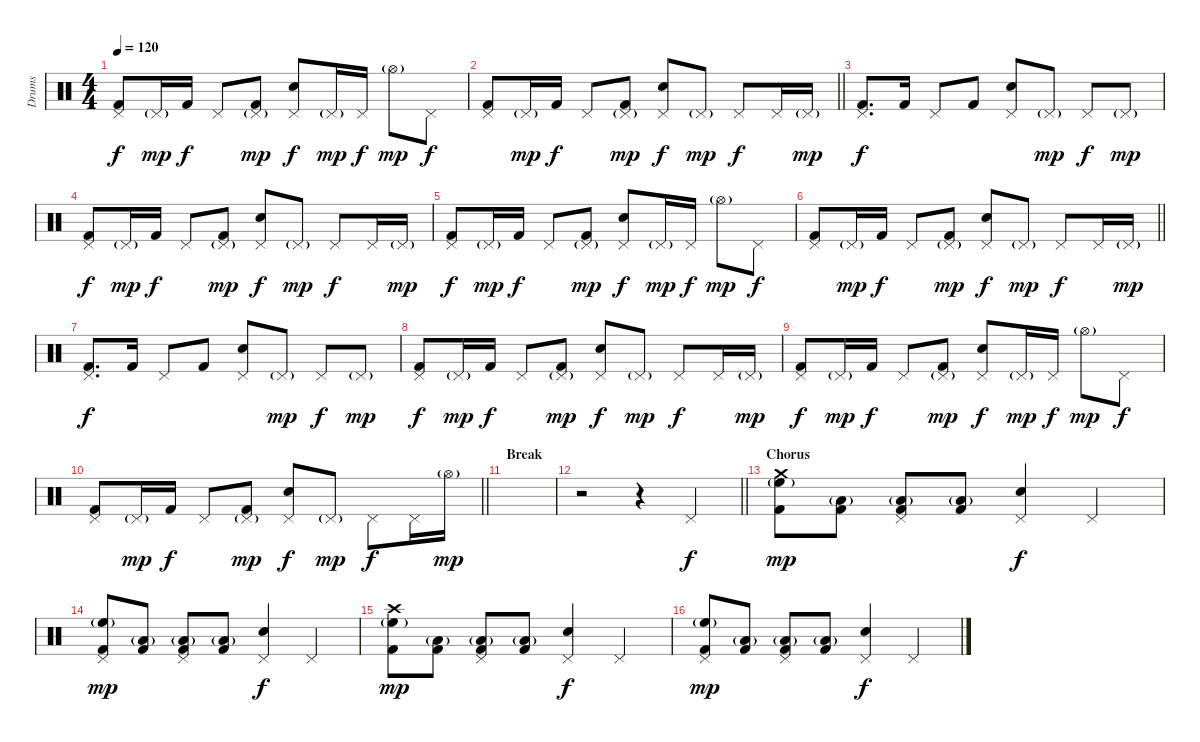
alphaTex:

\track ("Drums" "Drums") {instrument percussion}
\staff {score}
\articulation defaults
\ts (4 4)
\tempo 120
\clef neutral
\ks c
("Pedal Hi-Hat (hit)" "Kick (hit) 2").8{dy f} "Pedal Hi-Hat (hit)"{g}.16{dy mp} "Kick (hit) 2".16{dy f} "Pedal Hi-Hat (hit)".8 ("Pedal Hi-Hat (hit)"{g} "Kick (hit) 2").8{dy mp} ("Pedal Hi-Hat (hit)" "Electric Snare (hit)").8{dy f} "Pedal Hi-Hat (hit)"{g}.16{dy mp} "Pedal Hi-Hat (hit)".16{dy f} "Hi-Hat (open)"{g}.8{dy mp} "Pedal Hi-Hat (hit)".8{dy f} |
\barLineRight lightlight
("Pedal Hi-Hat (hit)" "Kick (hit) 2").8 "Pedal Hi-Hat (hit)"{g}.16{dy mp} "Kick (hit) 2".16{dy f} "Pedal Hi-Hat (hit)".8 ("Pedal Hi-Hat (hit)"{g} "Kick (hit) 2").8{dy mp} ("Pedal Hi-Hat (hit)" "Electric Snare (hit)").8{dy f} "Pedal Hi-Hat (hit)"{g}.8{dy mp} "Pedal Hi-Hat (hit)".8{dy f} "Pedal Hi-Hat (hit)".16 "Pedal Hi-Hat (hit)"{g}.16{dy mp} |
("Pedal Hi-Hat (hit)" "Kick (hit) 2").8{d dy f} "Kick (hit) 2".16 "Pedal Hi-Hat (hit)".8 "Kick (hit) 2".8 ("Pedal Hi-Hat (hit)" "Electric Snare (hit)").8 "Pedal Hi-Hat (hit)"{g}.8{dy mp} "Pedal Hi-Hat (hit)".8{dy f} "Pedal Hi-Hat (hit)"{g}.8{dy mp} |
("Pedal Hi-Hat (hit)" "Kick (hit) 2").8{dy f} "Pedal Hi-Hat (hit)"{g}.16{dy mp} "Kick (hit) 2".16{dy f} "Pedal Hi-Hat (hit)".8 ("Pedal Hi-Hat (hit)"{g} "Kick (hit) 2").8{dy mp} ("Pedal Hi-Hat (hit)" "Electric Snare (hit)").8{dy f} "Pedal Hi-Hat (hit)"{g}.8{dy mp} "Pedal Hi-Hat (hit)".8{dy f} "Pedal Hi-Hat (hit)".16 "Pedal Hi-Hat (hit)"{g}.16{dy mp} |
("Pedal Hi-Hat (hit)" "Kick (hit) 2").8{dy f} "Pedal Hi-Hat (hit)"{g}.16{dy mp} "Kick (hit) 2".16{dy f} "Pedal Hi-Hat (hit)".8 ("Pedal Hi-Hat (hit)"{g} "Kick (hit) 2").8{dy mp} ("Pedal Hi-Hat (hit)" "Electric Snare (hit)").8{dy f} "Pedal Hi-Hat (hit)"{g}.16{dy mp} "Pedal Hi-Hat (hit)".16{dy f} "Hi-Hat (open)"{g}.8{dy mp} "Pedal Hi-Hat (hit)".8{dy f} |
\barLineRight lightlight
("Pedal Hi-Hat (hit)" "Kick (hit) 2").8 "Pedal Hi-Hat (hit)"{g}.16{dy mp} "Kick (hit) 2".16{dy f} "Pedal Hi-Hat (hit)".8 ("Pedal Hi-Hat (hit)"{g} "Kick (hit) 2").8{dy mp} ("Pedal Hi-Hat (hit)" "Electric Snare (hit)").8{dy f} "Pedal Hi-Hat (hit)"{g}.8{dy mp} "Pedal Hi-Hat (hit)".8{dy f} "Pedal Hi-Hat (hit)".16 "Pedal Hi-Hat (hit)"{g}.16{dy mp} |
("Pedal Hi-Hat (hit)" "Kick (hit) 2").8{d dy f} "Kick (hit) 2".16 "Pedal Hi-Hat (hit)".8 "Kick (hit) 2".8 ("Pedal Hi-Hat (hit)" "Electric Snare (hit)").8 "Pedal Hi-Hat (hit)"{g}.8{dy mp} "Pedal Hi-Hat (hit)".8{dy f} "Pedal Hi-Hat (hit)"{g}.8{dy mp} |
("Pedal Hi-Hat (hit)" "Kick (hit) 2").8{dy f} "Pedal Hi-Hat (hit)"{g}.16{dy mp} "Kick (hit) 2".16{dy f} "Pedal Hi-Hat (hit)".8 ("Pedal Hi-Hat (hit)"{g} "Kick (hit) 2").8{dy mp} ("Pedal Hi-Hat (hit)" "Electric Snare (hit)").8{dy f} "Pedal Hi-Hat (hit)"{g}.8{dy mp} "Pedal Hi-Hat (hit)".8{dy f} "Pedal Hi-Hat (hit)".16 "Pedal Hi-Hat (hit)"{g}.16{dy mp} |
("Pedal Hi-Hat (hit)" "Kick (hit) 2").8{dy f} "Pedal Hi-Hat (hit)"{g}.16{dy mp} "Kick (hit) 2".16{dy f} "Pedal Hi-Hat (hit)".8 ("Pedal Hi-Hat (hit)"{g} "Kick (hit) 2").8{dy mp} ("Pedal Hi-Hat (hit)" "Electric Snare (hit)").8{dy f} "Pedal Hi-Hat (hit)"{g}.16{dy mp} "Pedal Hi-Hat (hit)".16{dy f} "Hi-Hat (open)"{g}.8{dy mp} "Pedal Hi-Hat (hit)".8{dy f} |
\barLineRight lightlight
("Pedal Hi-Hat (hit)" "Kick (hit) 2").8 "Pedal Hi-Hat (hit)"{g}.16{dy mp} "Kick (hit) 2".16{dy f} "Pedal Hi-Hat (hit)".8 ("Pedal Hi-Hat (hit)"{g} "Kick (hit) 2").8{dy mp} ("Pedal Hi-Hat (hit)" "Electric Snare (hit)").8{dy f} "Pedal Hi-Hat (hit)"{g}.8{dy mp} "Pedal Hi-Hat (hit)".8{dy f} "Pedal Hi-Hat (hit)".16 "Hi-Hat (open)"{g}.16{dy mp} |
\section ("" "Break")
|
\barLineRight lightlight
r.2 r.4 "Pedal Hi-Hat (hit)".4{dy f} |
\section ("" "Chorus")
("Crash medium (hit)" "High Floor Tom (hit)"{g} "Kick (hit) 2").8{dy mp} ("Low Tom (hit)"{g} "Kick (hit) 2").8 ("Pedal Hi-Hat (hit)" "Low Tom (hit)"{g} "Kick (hit) 2").8 ("Low Tom (hit)"{g} "Kick (hit) 2").8 ("Pedal Hi-Hat (hit)" "Electric Snare (hit)").4{dy f} "Pedal Hi-Hat (hit)".4 |
("Pedal Hi-Hat (hit)" "High Floor Tom (hit)"{g} "Kick (hit) 2").8{dy mp} ("Low Tom (hit)"{g} "Kick (hit) 2").8 ("Pedal Hi-Hat (hit)" "Low Tom (hit)"{g} "Kick (hit) 2").8 ("Low Tom (hit)"{g} "Kick (hit) 2").8 ("Pedal Hi-Hat (hit)" "Electric Snare (hit)").4{dy f} "Pedal Hi-Hat (hit)".4 |
("Crash high (hit)" "High Floor Tom (hit)"{g} "Kick (hit) 2").8{dy mp} ("Low Tom (hit)"{g} "Kick (hit) 2").8 ("Pedal Hi-Hat (hit)" "Low Tom (hit)"{g} "Kick (hit) 2").8 ("Low Tom (hit)"{g} "Kick (hit) 2").8 ("Pedal Hi-Hat (hit)" "Electric Snare (hit)").4{dy f} "Pedal Hi-Hat (hit)".4 |
("Pedal Hi-Hat (hit)" "High Floor Tom (hit)"{g} "Kick (hit) 2").8{dy mp} ("Low Tom (hit)"{g} "Kick (hit) 2").8 ("Pedal Hi-Hat (hit)" "Low Tom (hit)"{g} "Kick (hit) 2").8 ("Low Tom (hit)"{g} "Kick (hit) 2").8 ("Pedal Hi-Hat (hit)" "Electric Snare (hit)").4{dy f} "Pedal Hi-Hat (hit)".4
